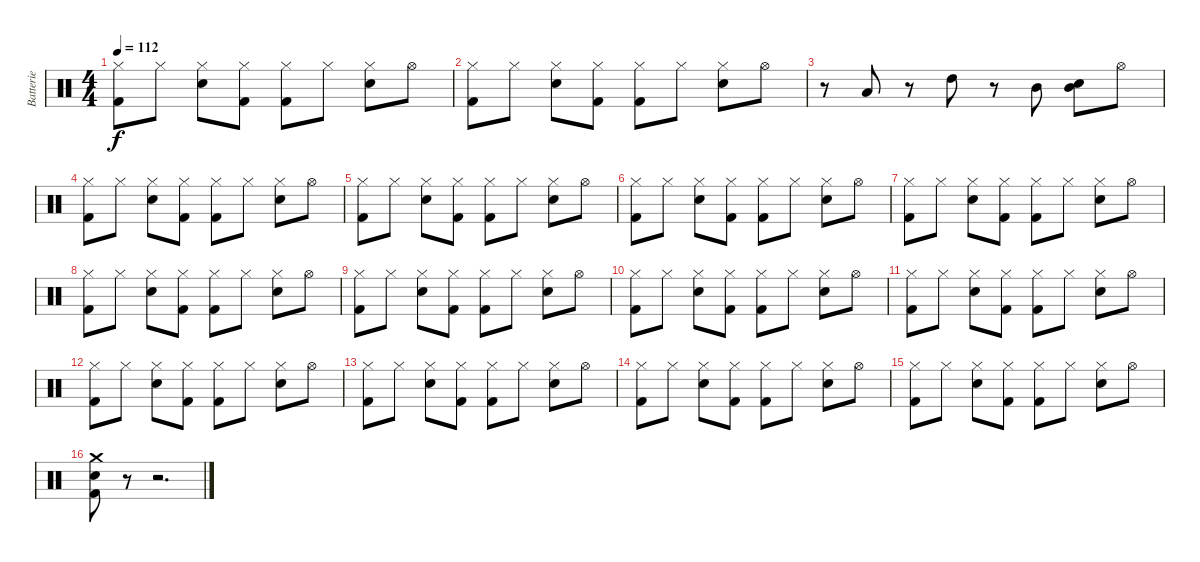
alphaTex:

\track ("Batterie" "Batterie") {instrument percussion}
\staff {score}
\articulation defaults
\ts (4 4)
\tempo 112
\clef neutral
\ks c
("Hi-Hat (closed)" "Kick (hit) 2").8{dy f} "Hi-Hat (closed)".8 ("Hi-Hat (closed)" "Electric Snare (hit)").8 ("Hi-Hat (closed)" "Kick (hit) 2").8 ("Hi-Hat (closed)" "Kick (hit) 2").8 "Hi-Hat (closed)".8 ("Hi-Hat (closed)" "Electric Snare (hit)").8 "Hi-Hat (open)".8 |
("Hi-Hat (closed)" "Kick (hit) 2").8 "Hi-Hat (closed)".8 ("Hi-Hat (closed)" "Electric Snare (hit)").8 ("Hi-Hat (closed)" "Kick (hit) 2").8 ("Hi-Hat (closed)" "Kick (hit) 2").8 "Hi-Hat (closed)".8 ("Hi-Hat (closed)" "Electric Snare (hit)").8 "Hi-Hat (open)".8 |
r.8 "Low Tom (hit)".8 r.8 "High Tom (hit)".8 r.8 "Mid Tom (hit)".8 ("Electric Snare (hit)" "Mid Tom (hit)").8 "Hi-Hat (open)".8 |
("Hi-Hat (closed)" "Kick (hit) 2").8 "Hi-Hat (closed)".8 ("Hi-Hat (closed)" "Electric Snare (hit)").8 ("Hi-Hat (closed)" "Kick (hit) 2").8 ("Hi-Hat (closed)" "Kick (hit) 2").8 "Hi-Hat (closed)".8 ("Hi-Hat (closed)" "Electric Snare (hit)").8 "Hi-Hat (open)".8 |
("Hi-Hat (closed)" "Kick (hit) 2").8 "Hi-Hat (closed)".8 ("Hi-Hat (closed)" "Electric Snare (hit)").8 ("Hi-Hat (closed)" "Kick (hit) 2").8 ("Hi-Hat (closed)" "Kick (hit) 2").8 "Hi-Hat (closed)".8 ("Hi-Hat (closed)" "Electric Snare (hit)").8 "Hi-Hat (open)".8 |
("Hi-Hat (closed)" "Kick (hit) 2").8 "Hi-Hat (closed)".8 ("Hi-Hat (closed)" "Electric Snare (hit)").8 ("Hi-Hat (closed)" "Kick (hit) 2").8 ("Hi-Hat (closed)" "Kick (hit) 2").8 "Hi-Hat (closed)".8 ("Hi-Hat (closed)" "Electric Snare (hit)").8 "Hi-Hat (open)".8 |
("Hi-Hat (closed)" "Kick (hit) 2").8 "Hi-Hat (closed)".8 ("Hi-Hat (closed)" "Electric Snare (hit)").8 ("Hi-Hat (closed)" "Kick (hit) 2").8 ("Hi-Hat (closed)" "Kick (hit) 2").8 "Hi-Hat (closed)".8 ("Hi-Hat (closed)" "Electric Snare (hit)").8 "Hi-Hat (open)".8 |
("Hi-Hat (closed)" "Kick (hit) 2").8 "Hi-Hat (closed)".8 ("Hi-Hat (closed)" "Electric Snare (hit)").8 ("Hi-Hat (closed)" "Kick (hit) 2").8 ("Hi-Hat (closed)" "Kick (hit) 2").8 "Hi-Hat (closed)".8 ("Hi-Hat (closed)" "Electric Snare (hit)").8 "Hi-Hat (open)".8 |
("Hi-Hat (closed)" "Kick (hit) 2").8 "Hi-Hat (closed)".8 ("Hi-Hat (closed)" "Electric Snare (hit)").8 ("Hi-Hat (closed)" "Kick (hit) 2").8 ("Hi-Hat (closed)" "Kick (hit) 2").8 "Hi-Hat (closed)".8 ("Hi-Hat (closed)" "Electric Snare (hit)").8 "Hi-Hat (open)".8 |
("Hi-Hat (closed)" "Kick (hit) 2").8 "Hi-Hat (closed)".8 ("Hi-Hat (closed)" "Electric Snare (hit)").8 ("Hi-Hat (closed)" "Kick (hit) 2").8 ("Hi-Hat (closed)" "Kick (hit) 2").8 "Hi-Hat (closed)".8 ("Hi-Hat (closed)" "Electric Snare (hit)").8 "Hi-Hat (open)".8 |
("Hi-Hat (closed)" "Kick (hit) 2").8 "Hi-Hat (closed)".8 ("Hi-Hat (closed)" "Electric Snare (hit)").8 ("Hi-Hat (closed)" "Kick (hit) 2").8 ("Hi-Hat (closed)" "Kick (hit) 2").8 "Hi-Hat (closed)".8 ("Hi-Hat (closed)" "Electric Snare (hit)").8 "Hi-Hat (open)".8 |
("Hi-Hat (closed)" "Kick (hit) 2").8 "Hi-Hat (closed)".8 ("Hi-Hat (closed)" "Electric Snare (hit)").8 ("Hi-Hat (closed)" "Kick (hit) 2").8 ("Hi-Hat (closed)" "Kick (hit) 2").8 "Hi-Hat (closed)".8 ("Hi-Hat (closed)" "Electric Snare (hit)").8 "Hi-Hat (open)".8 |
("Hi-Hat (closed)" "Kick (hit) 2").8 "Hi-Hat (closed)".8 ("Hi-Hat (closed)" "Electric Snare (hit)").8 ("Hi-Hat (closed)" "Kick (hit) 2").8 ("Hi-Hat (closed)" "Kick (hit) 2").8 "Hi-Hat (closed)".8 ("Hi-Hat (closed)" "Electric Snare (hit)").8 "Hi-Hat (open)".8 |
("Hi-Hat (closed)" "Kick (hit) 2").8 "Hi-Hat (closed)".8 ("Hi-Hat (closed)" "Electric Snare (hit)").8 ("Hi-Hat (closed)" "Kick (hit) 2").8 ("Hi-Hat (closed)" "Kick (hit) 2").8 "Hi-Hat (closed)".8 ("Hi-Hat (closed)" "Electric Snare (hit)").8 "Hi-Hat (open)".8 |
("Hi-Hat (closed)" "Kick (hit) 2").8 "Hi-Hat (closed)".8 ("Hi-Hat (closed)" "Electric Snare (hit)").8 ("Hi-Hat (closed)" "Kick (hit) 2").8 ("Hi-Hat (closed)" "Kick (hit) 2").8 "Hi-Hat (closed)".8 ("Hi-Hat (closed)" "Electric Snare (hit)").8 "Hi-Hat (open)".8 |
("Crash medium (hit)" "Electric Snare (hit)" "Kick (hit) 2").8 r.8 r.2{d}
